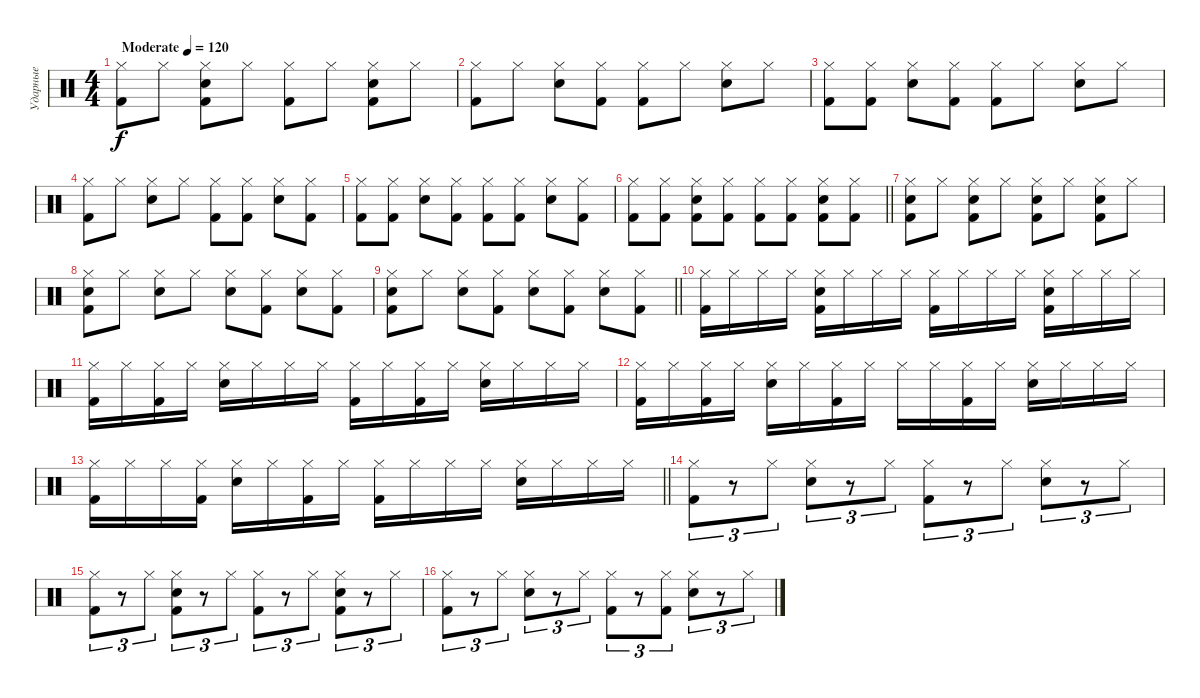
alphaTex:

\track ("Ударные" "Ударные") {instrument percussion}
\staff {score}
\articulation defaults
\ts (4 4)
\tempo (120 "Moderate")
\clef neutral
\ks c
("Hi-Hat (closed)" "Kick (hit) 2").8{dy f} "Hi-Hat (closed)".8 ("Hi-Hat (closed)" "Kick (hit) 2" "Electric Snare (hit)").8 "Hi-Hat (closed)".8 ("Hi-Hat (closed)" "Kick (hit) 2").8 "Hi-Hat (closed)".8 ("Hi-Hat (closed)" "Kick (hit) 2" "Electric Snare (hit)").8 "Hi-Hat (closed)".8 |
("Hi-Hat (closed)" "Kick (hit) 2").8 "Hi-Hat (closed)".8 ("Hi-Hat (closed)" "Electric Snare (hit)").8 ("Hi-Hat (closed)" "Kick (hit) 2").8 ("Hi-Hat (closed)" "Kick (hit) 2").8 "Hi-Hat (closed)".8 ("Hi-Hat (closed)" "Electric Snare (hit)").8 "Hi-Hat (closed)".8 |
("Hi-Hat (closed)" "Kick (hit) 2").8 ("Hi-Hat (closed)" "Kick (hit) 2").8 ("Hi-Hat (closed)" "Electric Snare (hit)").8 ("Hi-Hat (closed)" "Kick (hit) 2").8 ("Hi-Hat (closed)" "Kick (hit) 2").8 "Hi-Hat (closed)".8 ("Hi-Hat (closed)" "Electric Snare (hit)").8 "Hi-Hat (closed)".8 |
("Hi-Hat (closed)" "Kick (hit) 2").8 "Hi-Hat (closed)".8 ("Hi-Hat (closed)" "Electric Snare (hit)").8 "Hi-Hat (closed)".8 ("Hi-Hat (closed)" "Kick (hit) 2").8 ("Hi-Hat (closed)" "Kick (hit) 2").8 ("Hi-Hat (closed)" "Electric Snare (hit)").8 ("Hi-Hat (closed)" "Kick (hit) 2").8 |
("Hi-Hat (closed)" "Kick (hit) 2").8 ("Hi-Hat (closed)" "Kick (hit) 2").8 ("Hi-Hat (closed)" "Electric Snare (hit)").8 ("Hi-Hat (closed)" "Kick (hit) 2").8 ("Hi-Hat (closed)" "Kick (hit) 2").8 ("Hi-Hat (closed)" "Kick (hit) 2").8 ("Hi-Hat (closed)" "Electric Snare (hit)").8 ("Hi-Hat (closed)" "Kick (hit) 2").8 |
\barLineRight lightlight
("Hi-Hat (closed)" "Kick (hit) 2").8 ("Hi-Hat (closed)" "Kick (hit) 2").8 ("Hi-Hat (closed)" "Kick (hit) 2" "Electric Snare (hit)").8 ("Hi-Hat (closed)" "Kick (hit) 2").8 ("Hi-Hat (closed)" "Kick (hit) 2").8 ("Hi-Hat (closed)" "Kick (hit) 2").8 ("Hi-Hat (closed)" "Kick (hit) 2" "Electric Snare (hit)").8 ("Hi-Hat (closed)" "Kick (hit) 2").8 |
("Hi-Hat (closed)" "Kick (hit) 2" "Electric Snare (hit)").8 "Hi-Hat (closed)".8 ("Hi-Hat (closed)" "Kick (hit) 2" "Electric Snare (hit)").8 "Hi-Hat (closed)".8 ("Hi-Hat (closed)" "Kick (hit) 2" "Electric Snare (hit)").8 "Hi-Hat (closed)".8 ("Hi-Hat (closed)" "Kick (hit) 2" "Electric Snare (hit)").8 "Hi-Hat (closed)".8 |
("Hi-Hat (closed)" "Kick (hit) 2" "Electric Snare (hit)").8 "Hi-Hat (closed)".8 ("Hi-Hat (closed)" "Electric Snare (hit)").8 "Hi-Hat (closed)".8 ("Hi-Hat (closed)" "Electric Snare (hit)").8 ("Hi-Hat (closed)" "Kick (hit) 2").8 ("Hi-Hat (closed)" "Electric Snare (hit)").8 ("Hi-Hat (closed)" "Kick (hit) 2").8 |
\barLineRight lightlight
("Hi-Hat (closed)" "Kick (hit) 2" "Electric Snare (hit)").8 "Hi-Hat (closed)".8 ("Hi-Hat (closed)" "Electric Snare (hit)").8 ("Hi-Hat (closed)" "Kick (hit) 2").8 ("Hi-Hat (closed)" "Electric Snare (hit)").8 ("Hi-Hat (closed)" "Kick (hit) 2").8 ("Hi-Hat (closed)" "Electric Snare (hit)").8 ("Hi-Hat (closed)" "Kick (hit) 2").8 |
("Hi-Hat (closed)" "Kick (hit) 2").16 "Hi-Hat (closed)".16 "Hi-Hat (closed)".16 "Hi-Hat (closed)".16 ("Hi-Hat (closed)" "Kick (hit) 2" "Electric Snare (hit)").16 "Hi-Hat (closed)".16 "Hi-Hat (closed)".16 "Hi-Hat (closed)".16 ("Hi-Hat (closed)" "Kick (hit) 2").16 "Hi-Hat (closed)".16 "Hi-Hat (closed)".16 "Hi-Hat (closed)".16 ("Hi-Hat (closed)" "Kick (hit) 2" "Electric Snare (hit)").16 "Hi-Hat (closed)".16 "Hi-Hat (closed)".16 "Hi-Hat (closed)".16 |
("Hi-Hat (closed)" "Kick (hit) 2").16 "Hi-Hat (closed)".16 ("Hi-Hat (closed)" "Kick (hit) 2").16 "Hi-Hat (closed)".16 ("Hi-Hat (closed)" "Electric Snare (hit)").16 "Hi-Hat (closed)".16 "Hi-Hat (closed)".16 "Hi-Hat (closed)".16 ("Hi-Hat (closed)" "Kick (hit) 2").16 "Hi-Hat (closed)".16 ("Hi-Hat (closed)" "Kick (hit) 2").16 "Hi-Hat (closed)".16 ("Hi-Hat (closed)" "Electric Snare (hit)").16 "Hi-Hat (closed)".16 "Hi-Hat (closed)".16 "Hi-Hat (closed)".16 |
("Hi-Hat (closed)" "Kick (hit) 2").16 "Hi-Hat (closed)".16 ("Hi-Hat (closed)" "Kick (hit) 2").16 "Hi-Hat (closed)".16 ("Hi-Hat (closed)" "Electric Snare (hit)").16 "Hi-Hat (closed)".16 ("Hi-Hat (closed)" "Kick (hit) 2").16 "Hi-Hat (closed)".16 "Hi-Hat (closed)".16 "Hi-Hat (closed)".16 ("Hi-Hat (closed)" "Kick (hit) 2").16 "Hi-Hat (closed)".16 ("Hi-Hat (closed)" "Electric Snare (hit)").16 "Hi-Hat (closed)".16 "Hi-Hat (closed)".16 "Hi-Hat (closed)".16 |
\barLineRight lightlight
("Hi-Hat (closed)" "Kick (hit) 2").16 "Hi-Hat (closed)".16 "Hi-Hat (closed)".16 ("Hi-Hat (closed)" "Kick (hit) 2").16 ("Hi-Hat (closed)" "Electric Snare (hit)").16 "Hi-Hat (closed)".16 ("Hi-Hat (closed)" "Kick (hit) 2").16 "Hi-Hat (closed)".16 ("Hi-Hat (closed)" "Kick (hit) 2").16 "Hi-Hat (closed)".16 "Hi-Hat (closed)".16 "Hi-Hat (closed)".16 ("Hi-Hat (closed)" "Electric Snare (hit)").16 "Hi-Hat (closed)".16 "Hi-Hat (closed)".16 "Hi-Hat (closed)".16 |
("Hi-Hat (closed)" "Kick (hit) 2").8{tu (3 2)} r.8{tu (3 2)} "Hi-Hat (closed)".8{tu (3 2)} ("Hi-Hat (closed)" "Electric Snare (hit)").8{tu (3 2)} r.8{tu (3 2)} "Hi-Hat (closed)".8{tu (3 2)} ("Hi-Hat (closed)" "Kick (hit) 2").8{tu (3 2)} r.8{tu (3 2)} "Hi-Hat (closed)".8{tu (3 2)} ("Hi-Hat (closed)" "Electric Snare (hit)").8{tu (3 2)} r.8{tu (3 2)} "Hi-Hat (closed)".8{tu (3 2)} |
("Hi-Hat (closed)" "Kick (hit) 2").8{tu (3 2)} r.8{tu (3 2)} "Hi-Hat (closed)".8{tu (3 2)} ("Hi-Hat (closed)" "Electric Snare (hit)" "Kick (hit) 2").8{tu (3 2)} r.8{tu (3 2)} "Hi-Hat (closed)".8{tu (3 2)} ("Hi-Hat (closed)" "Kick (hit) 2").8{tu (3 2)} r.8{tu (3 2)} "Hi-Hat (closed)".8{tu (3 2)} ("Hi-Hat (closed)" "Electric Snare (hit)" "Kick (hit) 2").8{tu (3 2)} r.8{tu (3 2)} "Hi-Hat (closed)".8{tu (3 2)} |
("Hi-Hat (closed)" "Kick (hit) 2").8{tu (3 2)} r.8{tu (3 2)} "Hi-Hat (closed)".8{tu (3 2)} ("Hi-Hat (closed)" "Electric Snare (hit)").8{tu (3 2)} r.8{tu (3 2)} "Hi-Hat (closed)".8{tu (3 2)} ("Hi-Hat (closed)" "Kick (hit) 2").8{tu (3 2)} r.8{tu (3 2)} ("Hi-Hat (closed)" "Kick (hit) 2").8{tu (3 2)} ("Hi-Hat (closed)" "Electric Snare (hit)").8{tu (3 2)} r.8{tu (3 2)} "Hi-Hat (closed)".8{tu (3 2)}
